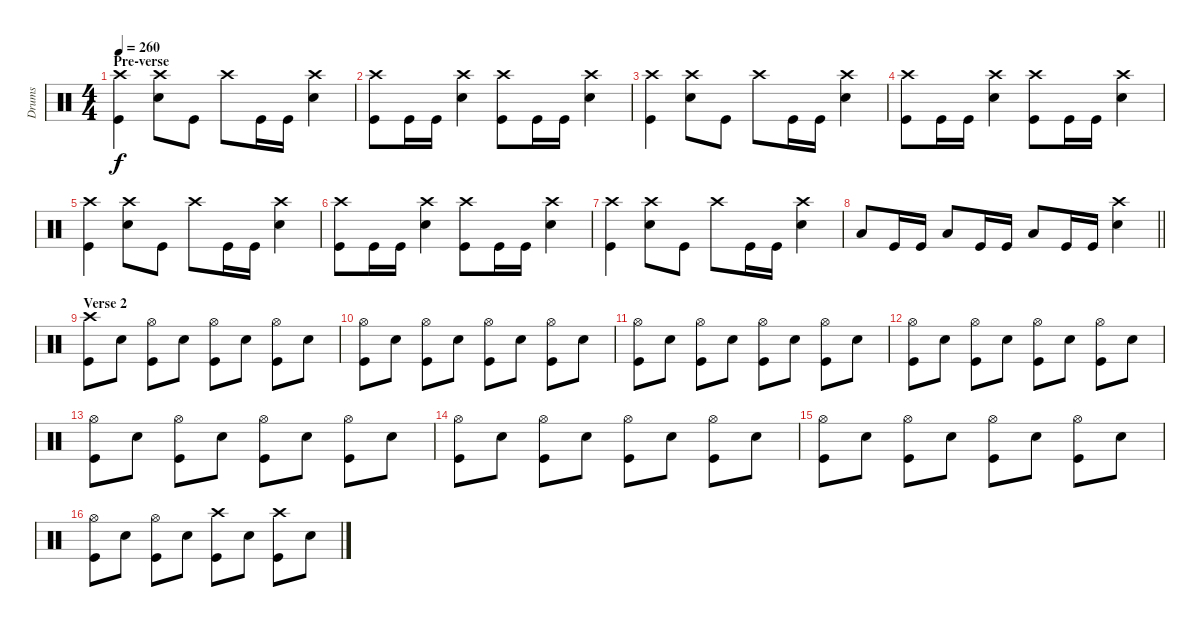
\track ("Drums" "Drums") {instrument percussion}
\staff {score}
\articulation defaults
\ts (4 4)
\section ("" "Pre-verse")
\tempo 260
\clef neutral
\ks c
("Kick (hit)" "Crash high (hit)").4{dy f} ("Snare (hit) 2" "Crash high (hit)").8 "Kick (hit)".8 "Crash high (hit)".8 "Kick (hit)".16 "Kick (hit)".16 ("Snare (hit) 2" "Crash high (hit)").4 |
("Kick (hit)" "Crash high (hit)").8 "Kick (hit)".16 "Kick (hit)".16 ("Snare (hit) 2" "Crash high (hit)").4 ("Kick (hit)" "Crash high (hit)").8 "Kick (hit)".16 "Kick (hit)".16 ("Snare (hit) 2" "Crash high (hit)").4 |
("Kick (hit)" "Crash high (hit)").4 ("Snare (hit) 2" "Crash high (hit)").8 "Kick (hit)".8 "Crash high (hit)".8 "Kick (hit)".16 "Kick (hit)".16 ("Snare (hit) 2" "Crash high (hit)").4 |
("Kick (hit)" "Crash high (hit)").8 "Kick (hit)".16 "Kick (hit)".16 ("Snare (hit) 2" "Crash high (hit)").4 ("Kick (hit)" "Crash high (hit)").8 "Kick (hit)".16 "Kick (hit)".16 ("Snare (hit) 2" "Crash high (hit)").4 |
("Kick (hit)" "Crash high (hit)").4 ("Snare (hit) 2" "Crash high (hit)").8 "Kick (hit)".8 "Crash high (hit)".8 "Kick (hit)".16 "Kick (hit)".16 ("Snare (hit) 2" "Crash high (hit)").4 |
("Kick (hit)" "Crash high (hit)").8 "Kick (hit)".16 "Kick (hit)".16 ("Snare (hit) 2" "Crash high (hit)").4 ("Kick (hit)" "Crash high (hit)").8 "Kick (hit)".16 "Kick (hit)".16 ("Snare (hit) 2" "Crash high (hit)").4 |
("Kick (hit)" "Crash high (hit)").4 ("Snare (hit) 2" "Crash high (hit)").8 "Kick (hit)".8 "Crash high (hit)".8 "Kick (hit)".16 "Kick (hit)".16 ("Snare (hit) 2" "Crash high (hit)").4 |
\barLineRight lightlight "Low Floor Tom (hit)".8 "Kick (hit)".16 "Kick (hit)".16 "Low Floor Tom (hit)".8 "Kick (hit)".16 "Kick (hit)".16 "Low Floor Tom (hit)".8 "Kick (hit)".16 "Kick (hit)".16
("Snare (hit) 2" "Crash high (hit)").4 |
\section ("" "Verse 2")
("Kick (hit)" "Crash high (hit)").8 "Snare (hit) 2".8 ("Kick (hit)" "Hi-Hat (open)").8 "Snare (hit) 2".8 ("Kick (hit)" "Hi-Hat (open)").8 "Snare (hit) 2".8 ("Kick (hit)" "Hi-Hat (open)").8 "Snare (hit) 2".8 |
("Kick (hit)" "Hi-Hat (open)").8 "Snare (hit) 2".8 ("Kick (hit)" "Hi-Hat (open)").8 "Snare (hit) 2".8 ("Kick (hit)" "Hi-Hat (open)").8 "Snare (hit) 2".8 ("Kick (hit)" "Hi-Hat (open)").8 "Snare (hit) 2".8 |
("Kick (hit)" "Hi-Hat (open)").8 "Snare (hit) 2".8 ("Kick (hit)" "Hi-Hat (open)").8 "Snare (hit) 2".8 ("Kick (hit)" "Hi-Hat (open)").8 "Snare (hit) 2".8 ("Kick (hit)" "Hi-Hat (open)").8 "Snare (hit) 2".8 |
("Kick (hit)" "Hi-Hat (open)").8 "Snare (hit) 2".8 ("Kick (hit)" "Hi-Hat (open)").8 "Snare (hit) 2".8 ("Kick (hit)" "Hi-Hat (open)").8 "Snare (hit) 2".8 ("Kick (hit)" "Hi-Hat (open)").8 "Snare (hit) 2".8 |
("Kick (hit)" "Hi-Hat (open)").8 "Snare (hit) 2".8 ("Kick (hit)" "Hi-Hat (open)").8 "Snare (hit) 2".8 ("Kick (hit)" "Hi-Hat (open)").8 "Snare (hit) 2".8 ("Kick (hit)" "Hi-Hat (open)").8 "Snare (hit) 2".8 |
("Kick (hit)" "Hi-Hat (open)").8 "Snare (hit) 2".8 ("Kick (hit)" "Hi-Hat (open)").8 "Snare (hit) 2".8 ("Kick (hit)" "Hi-Hat (open)").8 "Snare (hit) 2".8 ("Kick (hit)" "Hi-Hat (open)").8 "Snare (hit) 2".8 |
("Kick (hit)" "Hi-Hat (open)").8 "Snare (hit) 2".8 ("Kick (hit)" "Hi-Hat (open)").8 "Snare (hit) 2".8 ("Kick (hit)" "Hi-Hat (open)").8 "Snare (hit) 2".8 ("Kick (hit)" "Hi-Hat (open)").8 "Snare (hit) 2".8 |
("Kick (hit)" "Hi-Hat (open)").8 "Snare (hit) 2".8 ("Kick (hit)" "Hi-Hat (open)").8 "Snare (hit) 2".8 ("Kick (hit)" "Crash high (hit)").8 "Snare (hit) 2".8 ("Kick (hit)" "Crash high (hit)").8 "Snare (hit) 2".8
